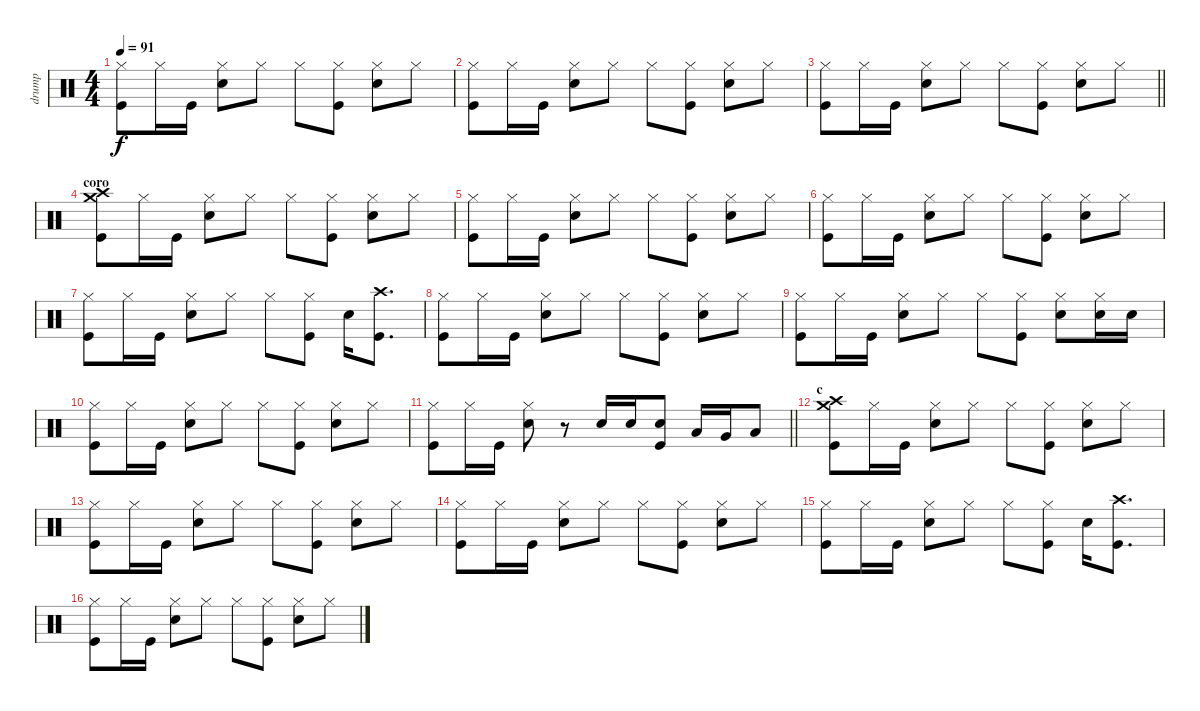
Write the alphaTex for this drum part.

\track ("drump" "drump") {instrument percussion}
\staff {score}
\articulation defaults
\ts (4 4)
\tempo 91
\clef neutral
\ks c
("Kick (hit)" "Hi-Hat (closed)").8{dy f} "Hi-Hat (closed)".16 "Kick (hit)".16 ("Snare (hit) 2" "Hi-Hat (closed)").8 "Hi-Hat (closed)".8 "Hi-Hat (closed)".8 ("Kick (hit)" "Hi-Hat (closed)").8 ("Snare (hit) 2" "Hi-Hat (closed)").8 "Hi-Hat (closed)".8 |
("Kick (hit)" "Hi-Hat (closed)").8 "Hi-Hat (closed)".16 "Kick (hit)".16 ("Snare (hit) 2" "Hi-Hat (closed)").8 "Hi-Hat (closed)".8 "Hi-Hat (closed)".8 ("Kick (hit)" "Hi-Hat (closed)").8 ("Snare (hit) 2" "Hi-Hat (closed)").8 "Hi-Hat (closed)".8 |
\barLineRight lightlight
("Kick (hit)" "Hi-Hat (closed)").8 "Hi-Hat (closed)".16 "Kick (hit)".16 ("Snare (hit) 2" "Hi-Hat (closed)").8 "Hi-Hat (closed)".8 "Hi-Hat (closed)".8 ("Kick (hit)" "Hi-Hat (closed)").8 ("Snare (hit) 2" "Hi-Hat (closed)").8 "Hi-Hat (closed)".8 |
\section ("" "coro")
("Kick (hit)" "Crash high (hit)" "Crash medium (hit)").8 "Hi-Hat (closed)".16 "Kick (hit)".16 ("Snare (hit) 2" "Hi-Hat (closed)").8 "Hi-Hat (closed)".8 "Hi-Hat (closed)".8 ("Kick (hit)" "Hi-Hat (closed)").8 ("Snare (hit) 2" "Hi-Hat (closed)").8 "Hi-Hat (closed)".8 |
("Kick (hit)" "Hi-Hat (closed)").8 "Hi-Hat (closed)".16 "Kick (hit)".16 ("Snare (hit) 2" "Hi-Hat (closed)").8 "Hi-Hat (closed)".8 "Hi-Hat (closed)".8 ("Kick (hit)" "Hi-Hat (closed)").8 ("Snare (hit) 2" "Hi-Hat (closed)").8 "Hi-Hat (closed)".8 |
("Kick (hit)" "Hi-Hat (closed)").8 "Hi-Hat (closed)".16 "Kick (hit)".16 ("Snare (hit) 2" "Hi-Hat (closed)").8 "Hi-Hat (closed)".8 "Hi-Hat (closed)".8 ("Kick (hit)" "Hi-Hat (closed)").8 ("Snare (hit) 2" "Hi-Hat (closed)").8 "Hi-Hat (closed)".8 |
("Kick (hit)" "Hi-Hat (closed)").8 "Hi-Hat (closed)".16 "Kick (hit)".16 ("Snare (hit) 2" "Hi-Hat (closed)").8 "Hi-Hat (closed)".8 "Hi-Hat (closed)".8 ("Kick (hit)" "Hi-Hat (closed)").8 "Snare (hit) 2".16 ("Kick (hit)" "Crash high (hit)").8{d} |
("Kick (hit)" "Hi-Hat (closed)").8 "Hi-Hat (closed)".16 "Kick (hit)".16 ("Snare (hit) 2" "Hi-Hat (closed)").8 "Hi-Hat (closed)".8 "Hi-Hat (closed)".8 ("Kick (hit)" "Hi-Hat (closed)").8 ("Snare (hit) 2" "Hi-Hat (closed)").8 "Hi-Hat (closed)".8 |
("Kick (hit)" "Hi-Hat (closed)").8 "Hi-Hat (closed)".16 "Kick (hit)".16 ("Snare (hit) 2" "Hi-Hat (closed)").8 "Hi-Hat (closed)".8 "Hi-Hat (closed)".8 ("Kick (hit)" "Hi-Hat (closed)").8 ("Snare (hit) 2" "Hi-Hat (closed)").8 ("Snare (hit) 2" "Hi-Hat (closed)").16 "Snare (hit) 2".16 |
("Kick (hit)" "Hi-Hat (closed)").8 "Hi-Hat (closed)".16 "Kick (hit)".16 ("Snare (hit) 2" "Hi-Hat (closed)").8 "Hi-Hat (closed)".8 "Hi-Hat (closed)".8 ("Kick (hit)" "Hi-Hat (closed)").8 ("Snare (hit) 2" "Hi-Hat (closed)").8 "Hi-Hat (closed)".8 |
\barLineRight lightlight
("Kick (hit)" "Hi-Hat (closed)").8 "Hi-Hat (closed)".16 "Kick (hit)".16 ("Snare (hit) 2" "Hi-Hat (closed)").8 r.8 "Snare (hit) 2".16 "Snare (hit) 2".16 ("Snare (hit) 2" "Kick (hit)").8 "Low Tom (hit)".16 "Very Low Tom (hit)".16 "Low Floor Tom (hit)".8 |
\section ("" "c")
("Kick (hit)" "Crash high (hit)" "Crash medium (hit)").8 "Hi-Hat (closed)".16 "Kick (hit)".16 ("Snare (hit) 2" "Hi-Hat (closed)").8 "Hi-Hat (closed)".8 "Hi-Hat (closed)".8 ("Kick (hit)" "Hi-Hat (closed)").8 ("Snare (hit) 2" "Hi-Hat (closed)").8 "Hi-Hat (closed)".8 |
("Kick (hit)" "Hi-Hat (closed)").8 "Hi-Hat (closed)".16 "Kick (hit)".16 ("Snare (hit) 2" "Hi-Hat (closed)").8 "Hi-Hat (closed)".8 "Hi-Hat (closed)".8 ("Kick (hit)" "Hi-Hat (closed)").8 ("Snare (hit) 2" "Hi-Hat (closed)").8 "Hi-Hat (closed)".8 |
("Kick (hit)" "Hi-Hat (closed)").8 "Hi-Hat (closed)".16 "Kick (hit)".16 ("Snare (hit) 2" "Hi-Hat (closed)").8 "Hi-Hat (closed)".8 "Hi-Hat (closed)".8 ("Kick (hit)" "Hi-Hat (closed)").8 ("Snare (hit) 2" "Hi-Hat (closed)").8 "Hi-Hat (closed)".8 |
("Kick (hit)" "Hi-Hat (closed)").8 "Hi-Hat (closed)".16 "Kick (hit)".16 ("Snare (hit) 2" "Hi-Hat (closed)").8 "Hi-Hat (closed)".8 "Hi-Hat (closed)".8 ("Kick (hit)" "Hi-Hat (closed)").8 "Snare (hit) 2".16 ("Kick (hit)" "Crash high (hit)").8{d} |
("Kick (hit)" "Hi-Hat (closed)").8 "Hi-Hat (closed)".16 "Kick (hit)".16 ("Snare (hit) 2" "Hi-Hat (closed)").8 "Hi-Hat (closed)".8 "Hi-Hat (closed)".8 ("Kick (hit)" "Hi-Hat (closed)").8 ("Snare (hit) 2" "Hi-Hat (closed)").8 "Hi-Hat (closed)".8
